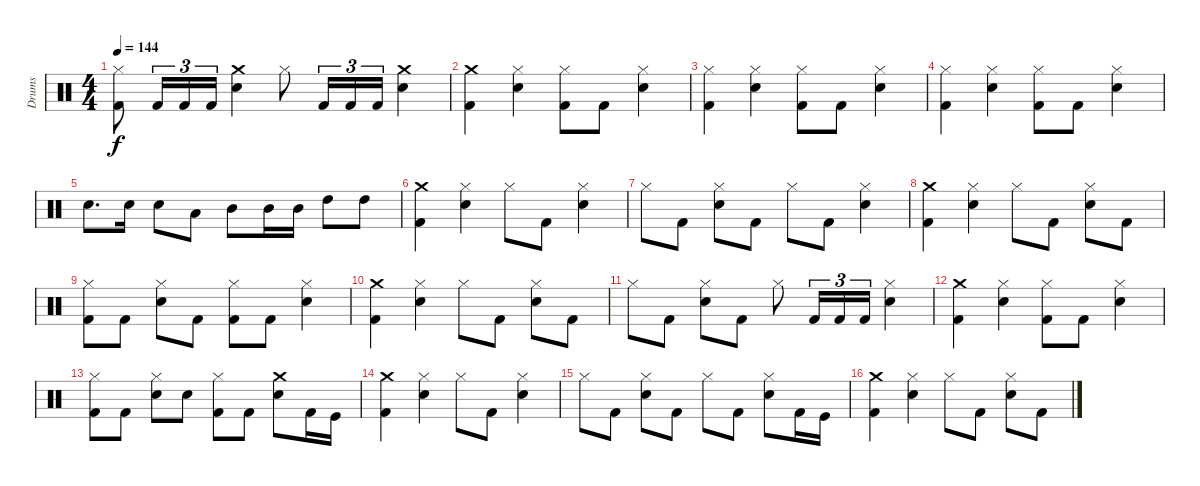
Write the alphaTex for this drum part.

\track ("Drums" "Drums") {instrument percussion}
\staff {score}
\articulation defaults
\ts (4 4)
\tempo 144
\clef neutral
\ks c
("Kick (hit) 2" "Hi-Hat (closed)").8{dy f} "Kick (hit) 2".16{tu (3 2)} "Kick (hit) 2".16{tu (3 2)} "Kick (hit) 2".16{tu (3 2)} ("Snare (hit) 2" "Crash medium (hit)").4 "Hi-Hat (closed)".8 "Kick (hit) 2".16{tu (3 2)} "Kick (hit) 2".16{tu (3 2)} "Kick (hit) 2".16{tu (3 2)} ("Snare (hit) 2" "Crash medium (hit)").4 |
("Kick (hit) 2" "Crash medium (hit)").4 ("Snare (hit) 2" "Hi-Hat (closed)").4 ("Kick (hit) 2" "Hi-Hat (closed)").8 "Kick (hit) 2".8 ("Snare (hit) 2" "Hi-Hat (closed)").4 |
("Kick (hit) 2" "Hi-Hat (closed)").4 ("Snare (hit) 2" "Hi-Hat (closed)").4 ("Hi-Hat (closed)" "Kick (hit) 2").8 "Kick (hit) 2".8 ("Snare (hit) 2" "Hi-Hat (closed)").4 |
("Kick (hit) 2" "Hi-Hat (closed)").4 ("Snare (hit) 2" "Hi-Hat (closed)").4 ("Hi-Hat (closed)" "Kick (hit) 2").8 "Kick (hit) 2".8 ("Snare (hit) 2" "Hi-Hat (closed)").4 |
"Snare (hit) 2".8{d} "Snare (hit) 2".16 "Snare (hit) 2".8 "Low Tom (hit)".8 "Mid Tom (hit)".8 "Mid Tom (hit)".16 "Mid Tom (hit)".16 "High Tom (hit)".8 "High Tom (hit)".8 |
("Crash medium (hit)" "Kick (hit) 2").4 ("Snare (hit) 2" "Hi-Hat (closed)").4 "Hi-Hat (closed)".8 "Kick (hit) 2".8 ("Snare (hit) 2" "Hi-Hat (closed)").4 |
"Hi-Hat (closed)".8 "Kick (hit) 2".8 ("Snare (hit) 2" "Hi-Hat (closed)").8 "Kick (hit) 2".8 "Hi-Hat (closed)".8 "Kick (hit) 2".8 ("Snare (hit) 2" "Hi-Hat (closed)").4 |
("Kick (hit) 2" "Crash medium (hit)").4 ("Snare (hit) 2" "Hi-Hat (closed)").4 "Hi-Hat (closed)".8 "Kick (hit) 2".8 ("Snare (hit) 2" "Hi-Hat (closed)").8 "Kick (hit) 2".8 |
("Kick (hit) 2" "Hi-Hat (closed)").8 "Kick (hit) 2".8 ("Snare (hit) 2" "Hi-Hat (closed)").8 "Kick (hit) 2".8 ("Kick (hit) 2" "Hi-Hat (closed)").8 "Kick (hit) 2".8 ("Snare (hit) 2" "Hi-Hat (closed)").4 |
("Crash medium (hit)" "Kick (hit) 2").4 ("Snare (hit) 2" "Hi-Hat (closed)").4 "Hi-Hat (closed)".8 "Kick (hit) 2".8 ("Snare (hit) 2" "Hi-Hat (closed)").8 "Kick (hit) 2".8 |
"Hi-Hat (closed)".8 "Kick (hit) 2".8 ("Snare (hit) 2" "Hi-Hat (closed)").8 "Kick (hit) 2".8 "Hi-Hat (closed)".8 "Kick (hit) 2".16{tu (3 2)} "Kick (hit) 2".16{tu (3 2)} "Kick (hit) 2".16{tu (3 2)} ("Snare (hit) 2" "Hi-Hat (closed)").4 |
("Kick (hit) 2" "Crash medium (hit)").4 ("Snare (hit) 2" "Hi-Hat (closed)").4 ("Kick (hit) 2" "Hi-Hat (closed)").8 "Kick (hit) 2".8 ("Snare (hit) 2" "Hi-Hat (closed)").4 |
("Hi-Hat (closed)" "Kick (hit) 2").8 "Kick (hit) 2".8 ("Snare (hit) 2" "Hi-Hat (closed)").8 "Snare (hit) 2".8 ("Hi-Hat (closed)" "Kick (hit) 2").8 "Kick (hit) 2".8 ("Crash medium (hit)" "Snare (hit) 2").8 "Kick (hit) 2".16 "Kick (hit)".16 |
("Kick (hit) 2" "Crash medium (hit)").4 ("Hi-Hat (closed)" "Snare (hit) 2").4 "Hi-Hat (closed)".8 "Kick (hit) 2".8 ("Snare (hit) 2" "Hi-Hat (closed)").4 |
"Hi-Hat (closed)".8 "Kick (hit) 2".8 ("Snare (hit) 2" "Hi-Hat (closed)").8 "Kick (hit) 2".8 "Hi-Hat (closed)".8 "Kick (hit) 2".8 ("Snare (hit) 2" "Hi-Hat (closed)").8 "Kick (hit) 2".16 "Kick (hit)".16 |
("Kick (hit) 2" "Crash medium (hit)").4 ("Snare (hit) 2" "Hi-Hat (closed)").4 "Hi-Hat (closed)".8 "Kick (hit) 2".8 ("Hi-Hat (closed)" "Snare (hit) 2").8 "Kick (hit) 2".8
